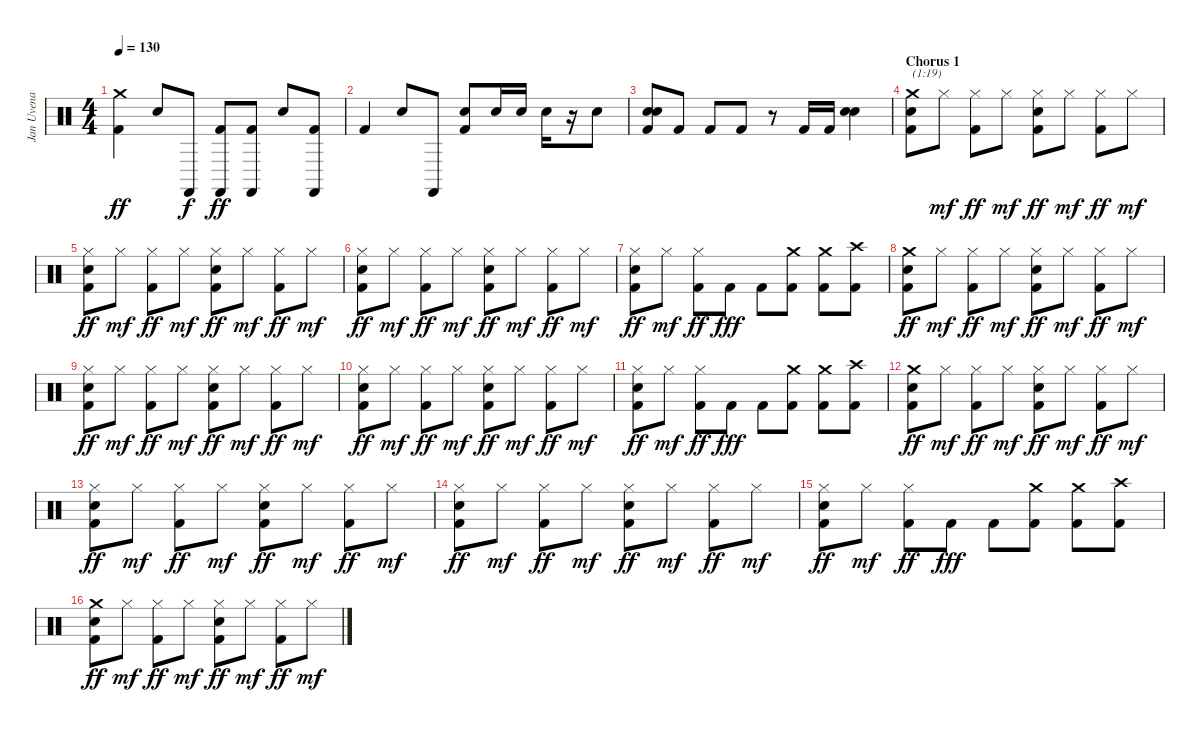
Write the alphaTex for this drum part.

\track ("Jan Uvena" "Jan Uvena") {instrument percussion}
\staff {score}
\articulation defaults
\ts (4 4)
\tempo 130
\clef neutral
\ks c
("Crash medium (hit)" "Kick (hit) 2").4{dy ff} "Snare (hit) 2".8 "Castanets (hit)".8{dy f} ("Castanets (hit)" "Kick (hit) 2").8{dy ff} ("Castanets (hit)" "Kick (hit) 2").8 "Snare (hit) 2".8 ("Castanets (hit)" "Kick (hit) 2").8 |
"Kick (hit) 2".4 "Snare (hit) 2".8 "Castanets (hit)".8 ("Snare (hit) 2" "Kick (hit) 2").8 "Snare (hit) 2".16 "Snare (hit) 2".16 "Snare (hit) 2".16 r.16 "Snare (hit) 2".8 |
("Electric Snare (hit)" "Snare (hit) 2" "Kick (hit) 2").8 "Kick (hit) 2".8 "Kick (hit) 2".8 "Kick (hit) 2".8 r.8 "Kick (hit) 2".16 "Kick (hit) 2".16 ("Electric Snare (hit)" "Snare (hit) 2").4 |
\section ("" "Chorus 1")
("Crash medium (hit)" "Snare (hit) 2" "Kick (hit) 2").8{txt "(1:19)"} "Hi-Hat (closed)".8{dy mf} ("Hi-Hat (closed)" "Kick (hit) 2").8{dy ff} "Hi-Hat (closed)".8{dy mf} ("Hi-Hat (closed)" "Snare (hit) 2" "Kick (hit) 2").8{dy ff} "Hi-Hat (closed)".8{dy mf} ("Hi-Hat (closed)" "Kick (hit) 2").8{dy ff} "Hi-Hat (closed)".8{dy mf} |
("Hi-Hat (closed)" "Snare (hit) 2" "Kick (hit) 2").8{dy ff} "Hi-Hat (closed)".8{dy mf} ("Hi-Hat (closed)" "Kick (hit) 2").8{dy ff} "Hi-Hat (closed)".8{dy mf} ("Hi-Hat (closed)" "Snare (hit) 2" "Kick (hit) 2").8{dy ff} "Hi-Hat (closed)".8{dy mf} ("Hi-Hat (closed)" "Kick (hit) 2").8{dy ff} "Hi-Hat (closed)".8{dy mf} |
("Hi-Hat (closed)" "Snare (hit) 2" "Kick (hit) 2").8{dy ff} "Hi-Hat (closed)".8{dy mf} ("Hi-Hat (closed)" "Kick (hit) 2").8{dy ff} "Hi-Hat (closed)".8{dy mf} ("Hi-Hat (closed)" "Snare (hit) 2" "Kick (hit) 2").8{dy ff} "Hi-Hat (closed)".8{dy mf} ("Hi-Hat (closed)" "Kick (hit) 2").8{dy ff} "Hi-Hat (closed)".8{dy mf} |
("Hi-Hat (closed)" "Snare (hit) 2" "Kick (hit) 2").8{dy ff} "Hi-Hat (closed)".8{dy mf} ("Hi-Hat (closed)" "Kick (hit) 2").8{dy ff} "Kick (hit) 2".8{dy fff} "Kick (hit) 2".8 ("Crash medium (hit)" "Kick (hit) 2").8 ("Crash medium (hit)" "Kick (hit) 2").8 ("Crash high (hit)" "Kick (hit) 2").8 |
("Crash medium (hit)" "Snare (hit) 2" "Kick (hit) 2").8{dy ff} "Hi-Hat (closed)".8{dy mf} ("Hi-Hat (closed)" "Kick (hit) 2").8{dy ff} "Hi-Hat (closed)".8{dy mf} ("Hi-Hat (closed)" "Snare (hit) 2" "Kick (hit) 2").8{dy ff} "Hi-Hat (closed)".8{dy mf} ("Hi-Hat (closed)" "Kick (hit) 2").8{dy ff} "Hi-Hat (closed)".8{dy mf} |
("Hi-Hat (closed)" "Snare (hit) 2" "Kick (hit) 2").8{dy ff} "Hi-Hat (closed)".8{dy mf} ("Hi-Hat (closed)" "Kick (hit) 2").8{dy ff} "Hi-Hat (closed)".8{dy mf} ("Hi-Hat (closed)" "Snare (hit) 2" "Kick (hit) 2").8{dy ff} "Hi-Hat (closed)".8{dy mf} ("Hi-Hat (closed)" "Kick (hit) 2").8{dy ff} "Hi-Hat (closed)".8{dy mf} |
("Hi-Hat (closed)" "Snare (hit) 2" "Kick (hit) 2").8{dy ff} "Hi-Hat (closed)".8{dy mf} ("Hi-Hat (closed)" "Kick (hit) 2").8{dy ff} "Hi-Hat (closed)".8{dy mf} ("Hi-Hat (closed)" "Snare (hit) 2" "Kick (hit) 2").8{dy ff} "Hi-Hat (closed)".8{dy mf} ("Hi-Hat (closed)" "Kick (hit) 2").8{dy ff} "Hi-Hat (closed)".8{dy mf} |
("Hi-Hat (closed)" "Snare (hit) 2" "Kick (hit) 2").8{dy ff} "Hi-Hat (closed)".8{dy mf} ("Hi-Hat (closed)" "Kick (hit) 2").8{dy ff} "Kick (hit) 2".8{dy fff} "Kick (hit) 2".8 ("Crash medium (hit)" "Kick (hit) 2").8 ("Crash medium (hit)" "Kick (hit) 2").8 ("Crash high (hit)" "Kick (hit) 2").8 |
("Crash medium (hit)" "Snare (hit) 2" "Kick (hit) 2").8{dy ff} "Hi-Hat (closed)".8{dy mf} ("Hi-Hat (closed)" "Kick (hit) 2").8{dy ff} "Hi-Hat (closed)".8{dy mf} ("Hi-Hat (closed)" "Snare (hit) 2" "Kick (hit) 2").8{dy ff} "Hi-Hat (closed)".8{dy mf} ("Hi-Hat (closed)" "Kick (hit) 2").8{dy ff} "Hi-Hat (closed)".8{dy mf} |
("Hi-Hat (closed)" "Snare (hit) 2" "Kick (hit) 2").8{dy ff} "Hi-Hat (closed)".8{dy mf} ("Hi-Hat (closed)" "Kick (hit) 2").8{dy ff} "Hi-Hat (closed)".8{dy mf} ("Hi-Hat (closed)" "Snare (hit) 2" "Kick (hit) 2").8{dy ff} "Hi-Hat (closed)".8{dy mf} ("Hi-Hat (closed)" "Kick (hit) 2").8{dy ff} "Hi-Hat (closed)".8{dy mf} |
("Hi-Hat (closed)" "Snare (hit) 2" "Kick (hit) 2").8{dy ff} "Hi-Hat (closed)".8{dy mf} ("Hi-Hat (closed)" "Kick (hit) 2").8{dy ff} "Hi-Hat (closed)".8{dy mf} ("Hi-Hat (closed)" "Snare (hit) 2" "Kick (hit) 2").8{dy ff} "Hi-Hat (closed)".8{dy mf} ("Hi-Hat (closed)" "Kick (hit) 2").8{dy ff} "Hi-Hat (closed)".8{dy mf} |
("Hi-Hat (closed)" "Snare (hit) 2" "Kick (hit) 2").8{dy ff} "Hi-Hat (closed)".8{dy mf} ("Hi-Hat (closed)" "Kick (hit) 2").8{dy ff} "Kick (hit) 2".8{dy fff} "Kick (hit) 2".8 ("Crash medium (hit)" "Kick (hit) 2").8 ("Crash medium (hit)" "Kick (hit) 2").8 ("Crash high (hit)" "Kick (hit) 2").8 |
("Crash medium (hit)" "Snare (hit) 2" "Kick (hit) 2").8{dy ff} "Hi-Hat (closed)".8{dy mf} ("Hi-Hat (closed)" "Kick (hit) 2").8{dy ff} "Hi-Hat (closed)".8{dy mf} ("Hi-Hat (closed)" "Snare (hit) 2" "Kick (hit) 2").8{dy ff} "Hi-Hat (closed)".8{dy mf} ("Hi-Hat (closed)" "Kick (hit) 2").8{dy ff} "Hi-Hat (closed)".8{dy mf}
